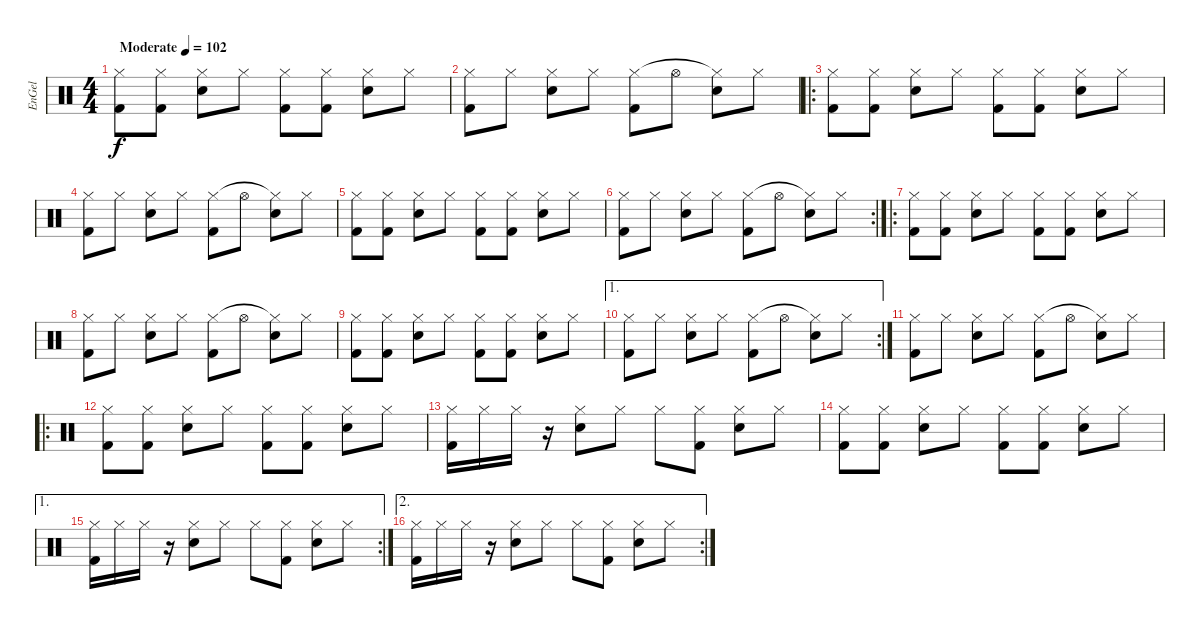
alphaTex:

\track ("EnGel" "EnGel") {instrument percussion}
\staff {score}
\articulation defaults
\ts (4 4)
\tempo (102 "Moderate")
\clef neutral
\ks c
("Kick (hit) 2" "Hi-Hat (closed)").8{dy f} ("Kick (hit) 2" "Hi-Hat (closed)").8 ("Snare (hit) 2" "Hi-Hat (closed)").8 "Hi-Hat (closed)".8 ("Kick (hit) 2" "Hi-Hat (closed)").8 ("Kick (hit) 2" "Hi-Hat (closed)").8 ("Snare (hit) 2" "Hi-Hat (closed)").8 "Hi-Hat (closed)".8 |
("Kick (hit) 2" "Hi-Hat (closed)").8 "Hi-Hat (closed)".8 ("Snare (hit) 2" "Hi-Hat (closed)").8 "Hi-Hat (closed)".8 ("Kick (hit) 2" "Hi-Hat (closed)").8 "Hi-Hat (open)".8 ("Snare (hit) 2" "Hi-Hat (closed)"{t}).8 "Hi-Hat (closed)".8 |
\ro
("Kick (hit) 2" "Hi-Hat (closed)").8 ("Kick (hit) 2" "Hi-Hat (closed)").8 ("Snare (hit) 2" "Hi-Hat (closed)").8 "Hi-Hat (closed)".8 ("Kick (hit) 2" "Hi-Hat (closed)").8 ("Kick (hit) 2" "Hi-Hat (closed)").8 ("Snare (hit) 2" "Hi-Hat (closed)").8 "Hi-Hat (closed)".8 |
("Kick (hit) 2" "Hi-Hat (closed)").8 "Hi-Hat (closed)".8 ("Snare (hit) 2" "Hi-Hat (closed)").8 "Hi-Hat (closed)".8 ("Kick (hit) 2" "Hi-Hat (closed)").8 "Hi-Hat (open)".8 ("Snare (hit) 2" "Hi-Hat (closed)"{t}).8 "Hi-Hat (closed)".8 |
("Kick (hit) 2" "Hi-Hat (closed)").8 ("Kick (hit) 2" "Hi-Hat (closed)").8 ("Snare (hit) 2" "Hi-Hat (closed)").8 "Hi-Hat (closed)".8 ("Kick (hit) 2" "Hi-Hat (closed)").8 ("Kick (hit) 2" "Hi-Hat (closed)").8 ("Snare (hit) 2" "Hi-Hat (closed)").8 "Hi-Hat (closed)".8 |
\rc 2
("Kick (hit) 2" "Hi-Hat (closed)").8 "Hi-Hat (closed)".8 ("Snare (hit) 2" "Hi-Hat (closed)").8 "Hi-Hat (closed)".8 ("Kick (hit) 2" "Hi-Hat (closed)").8 "Hi-Hat (open)".8 ("Snare (hit) 2" "Hi-Hat (closed)"{t}).8 "Hi-Hat (closed)".8 |
\ro
("Kick (hit) 2" "Hi-Hat (closed)").8 ("Kick (hit) 2" "Hi-Hat (closed)").8 ("Snare (hit) 2" "Hi-Hat (closed)").8 "Hi-Hat (closed)".8 ("Kick (hit) 2" "Hi-Hat (closed)").8 ("Kick (hit) 2" "Hi-Hat (closed)").8 ("Snare (hit) 2" "Hi-Hat (closed)").8 "Hi-Hat (closed)".8 |
("Kick (hit) 2" "Hi-Hat (closed)").8 "Hi-Hat (closed)".8 ("Snare (hit) 2" "Hi-Hat (closed)").8 "Hi-Hat (closed)".8 ("Kick (hit) 2" "Hi-Hat (closed)").8 "Hi-Hat (open)".8 ("Snare (hit) 2" "Hi-Hat (closed)"{t}).8 "Hi-Hat (closed)".8 |
("Kick (hit) 2" "Hi-Hat (closed)").8 ("Kick (hit) 2" "Hi-Hat (closed)").8 ("Snare (hit) 2" "Hi-Hat (closed)").8 "Hi-Hat (closed)".8 ("Kick (hit) 2" "Hi-Hat (closed)").8 ("Kick (hit) 2" "Hi-Hat (closed)").8 ("Snare (hit) 2" "Hi-Hat (closed)").8 "Hi-Hat (closed)".8 |
\ae 1
\rc 2
("Kick (hit) 2" "Hi-Hat (closed)").8 "Hi-Hat (closed)".8 ("Snare (hit) 2" "Hi-Hat (closed)").8 "Hi-Hat (closed)".8 ("Kick (hit) 2" "Hi-Hat (closed)").8 "Hi-Hat (open)".8 ("Snare (hit) 2" "Hi-Hat (closed)"{t}).8 "Hi-Hat (closed)".8 |
("Kick (hit) 2" "Hi-Hat (closed)").8 "Hi-Hat (closed)".8 ("Snare (hit) 2" "Hi-Hat (closed)").8 "Hi-Hat (closed)".8 ("Kick (hit) 2" "Hi-Hat (closed)").8 "Hi-Hat (open)".8 ("Snare (hit) 2" "Hi-Hat (closed)"{t}).8 "Hi-Hat (closed)".8 |
\ro
("Kick (hit) 2" "Hi-Hat (closed)").8 ("Kick (hit) 2" "Hi-Hat (closed)").8 ("Snare (hit) 2" "Hi-Hat (closed)").8 "Hi-Hat (closed)".8 ("Kick (hit) 2" "Hi-Hat (closed)").8 ("Kick (hit) 2" "Hi-Hat (closed)").8 ("Snare (hit) 2" "Hi-Hat (closed)").8 "Hi-Hat (closed)".8 |
("Kick (hit) 2" "Hi-Hat (closed)").16 "Hi-Hat (closed)".16 "Hi-Hat (closed)".16 r.16 ("Snare (hit) 2" "Hi-Hat (closed)").8 "Hi-Hat (closed)".8 "Hi-Hat (closed)".8 ("Kick (hit) 2" "Hi-Hat (closed)").8 ("Snare (hit) 2" "Hi-Hat (closed)").8 "Hi-Hat (closed)".8 |
("Kick (hit) 2" "Hi-Hat (closed)").8 ("Kick (hit) 2" "Hi-Hat (closed)").8 ("Snare (hit) 2" "Hi-Hat (closed)").8 "Hi-Hat (closed)".8 ("Kick (hit) 2" "Hi-Hat (closed)").8 ("Kick (hit) 2" "Hi-Hat (closed)").8 ("Snare (hit) 2" "Hi-Hat (closed)").8 "Hi-Hat (closed)".8 |
\ae 1
\rc 2
("Kick (hit) 2" "Hi-Hat (closed)").16 "Hi-Hat (closed)".16 "Hi-Hat (closed)".16 r.16 ("Snare (hit) 2" "Hi-Hat (closed)").8 "Hi-Hat (closed)".8 "Hi-Hat (closed)".8 ("Kick (hit) 2" "Hi-Hat (closed)").8 ("Snare (hit) 2" "Hi-Hat (closed)").8 "Hi-Hat (closed)".8 |
\ae 2
\rc 2
("Kick (hit) 2" "Hi-Hat (closed)").16 "Hi-Hat (closed)".16 "Hi-Hat (closed)".16 r.16 ("Snare (hit) 2" "Hi-Hat (closed)").8 "Hi-Hat (closed)".8 "Hi-Hat (closed)".8 ("Kick (hit) 2" "Hi-Hat (closed)").8 ("Snare (hit) 2" "Hi-Hat (closed)").8 "Hi-Hat (closed)".8
